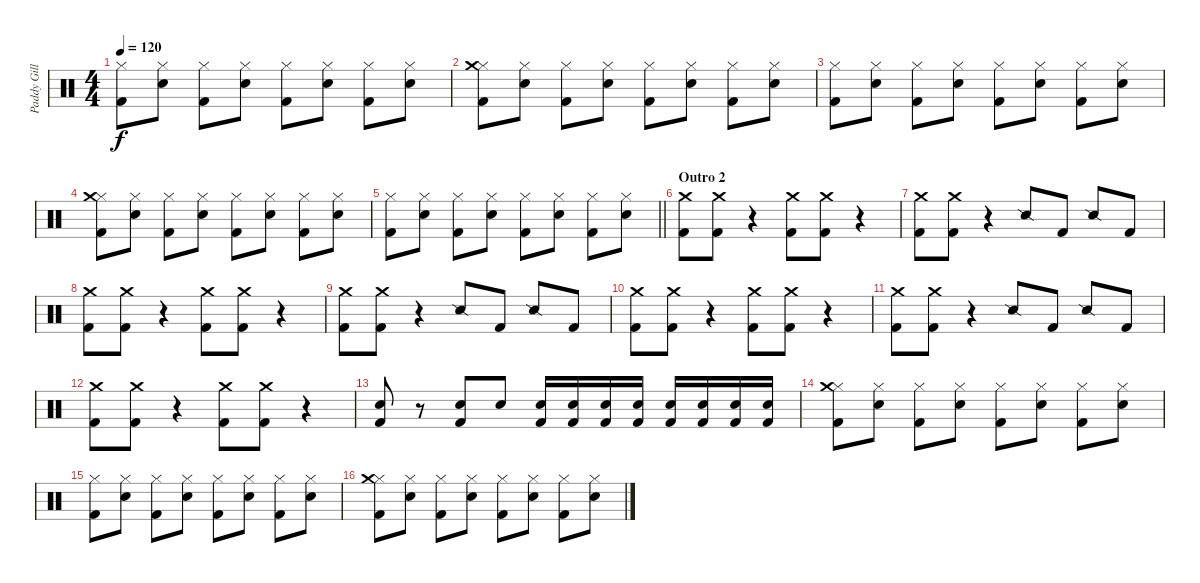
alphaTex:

\track ("Paddy Gillespie" "Paddy Gill") {instrument percussion}
\staff {score}
\articulation defaults
\ts (4 4)
\tempo 120
\clef neutral
\ks c
("Hi-Hat (closed)" "Kick (hit) 2").8{dy f} ("Hi-Hat (closed)" "Snare (hit) 2").8 ("Hi-Hat (closed)" "Kick (hit) 2").8 ("Hi-Hat (closed)" "Snare (hit) 2").8 ("Hi-Hat (closed)" "Kick (hit) 2").8 ("Hi-Hat (closed)" "Snare (hit) 2").8 ("Hi-Hat (closed)" "Kick (hit) 2").8 ("Hi-Hat (closed)" "Snare (hit) 2").8 |
("Hi-Hat (closed)" "Kick (hit) 2" "Crash medium (hit)").8 ("Hi-Hat (closed)" "Snare (hit) 2").8 ("Hi-Hat (closed)" "Kick (hit) 2").8 ("Hi-Hat (closed)" "Snare (hit) 2").8 ("Hi-Hat (closed)" "Kick (hit) 2").8 ("Hi-Hat (closed)" "Snare (hit) 2").8 ("Hi-Hat (closed)" "Kick (hit) 2").8 ("Hi-Hat (closed)" "Snare (hit) 2").8 |
("Hi-Hat (closed)" "Kick (hit) 2").8 ("Hi-Hat (closed)" "Snare (hit) 2").8 ("Hi-Hat (closed)" "Kick (hit) 2").8 ("Hi-Hat (closed)" "Snare (hit) 2").8 ("Hi-Hat (closed)" "Kick (hit) 2").8 ("Hi-Hat (closed)" "Snare (hit) 2").8 ("Hi-Hat (closed)" "Kick (hit) 2").8 ("Hi-Hat (closed)" "Snare (hit) 2").8 |
("Hi-Hat (closed)" "Kick (hit) 2" "Crash medium (hit)").8 ("Hi-Hat (closed)" "Snare (hit) 2").8 ("Hi-Hat (closed)" "Kick (hit) 2").8 ("Hi-Hat (closed)" "Snare (hit) 2").8 ("Hi-Hat (closed)" "Kick (hit) 2").8 ("Hi-Hat (closed)" "Snare (hit) 2").8 ("Hi-Hat (closed)" "Kick (hit) 2").8 ("Hi-Hat (closed)" "Snare (hit) 2").8 |
\barLineRight lightlight
("Hi-Hat (closed)" "Kick (hit) 2").8 ("Hi-Hat (closed)" "Snare (hit) 2").8 ("Hi-Hat (closed)" "Kick (hit) 2").8 ("Hi-Hat (closed)" "Snare (hit) 2").8 ("Hi-Hat (closed)" "Kick (hit) 2").8 ("Hi-Hat (closed)" "Snare (hit) 2").8 ("Hi-Hat (closed)" "Kick (hit) 2").8 ("Hi-Hat (closed)" "Snare (hit) 2").8 |
\section ("" "Outro 2")
("Kick (hit) 2" "Crash medium (hit)").8 ("Kick (hit) 2" "Crash medium (hit)").8 r.4 ("Kick (hit) 2" "Crash medium (hit)").8 ("Kick (hit) 2" "Crash medium (hit)").8 r.4 |
("Kick (hit) 2" "Crash medium (hit)").8 ("Kick (hit) 2" "Crash medium (hit)").8 r.4 "Snare (side stick) 2".8 "Kick (hit) 2".8 "Snare (side stick) 2".8 "Kick (hit) 2".8 |
("Kick (hit) 2" "Crash medium (hit)").8 ("Kick (hit) 2" "Crash medium (hit)").8 r.4 ("Kick (hit) 2" "Crash medium (hit)").8 ("Kick (hit) 2" "Crash medium (hit)").8 r.4 |
("Kick (hit) 2" "Crash medium (hit)").8 ("Kick (hit) 2" "Crash medium (hit)").8 r.4 "Snare (side stick) 2".8 "Kick (hit) 2".8 "Snare (side stick) 2".8 "Kick (hit) 2".8 |
("Kick (hit) 2" "Crash medium (hit)").8 ("Kick (hit) 2" "Crash medium (hit)").8 r.4 ("Kick (hit) 2" "Crash medium (hit)").8 ("Kick (hit) 2" "Crash medium (hit)").8 r.4 |
("Kick (hit) 2" "Crash medium (hit)").8 ("Kick (hit) 2" "Crash medium (hit)").8 r.4 "Snare (side stick) 2".8 "Kick (hit) 2".8 "Snare (side stick) 2".8 "Kick (hit) 2".8 |
("Kick (hit) 2" "Crash medium (hit)").8 ("Kick (hit) 2" "Crash medium (hit)").8 r.4 ("Kick (hit) 2" "Crash medium (hit)").8 ("Kick (hit) 2" "Crash medium (hit)").8 r.4 |
("Snare (hit) 2" "Kick (hit) 2").8 r.8 ("Snare (hit) 2" "Kick (hit) 2").8 "Snare (hit) 2".8 ("Snare (hit) 2" "Kick (hit) 2").16 ("Snare (hit) 2" "Kick (hit) 2").16 ("Snare (hit) 2" "Kick (hit) 2").16 ("Snare (hit) 2" "Kick (hit) 2").16 ("Snare (hit) 2" "Kick (hit) 2").16 ("Snare (hit) 2" "Kick (hit) 2").16 ("Snare (hit) 2" "Kick (hit) 2").16 ("Snare (hit) 2" "Kick (hit) 2").16 |
("Hi-Hat (closed)" "Kick (hit) 2" "Crash medium (hit)").8 ("Hi-Hat (closed)" "Snare (hit) 2").8 ("Hi-Hat (closed)" "Kick (hit) 2").8 ("Hi-Hat (closed)" "Snare (hit) 2").8 ("Hi-Hat (closed)" "Kick (hit) 2").8 ("Hi-Hat (closed)" "Snare (hit) 2").8 ("Hi-Hat (closed)" "Kick (hit) 2").8 ("Hi-Hat (closed)" "Snare (hit) 2").8 |
("Hi-Hat (closed)" "Kick (hit) 2").8 ("Hi-Hat (closed)" "Snare (hit) 2").8 ("Hi-Hat (closed)" "Kick (hit) 2").8 ("Hi-Hat (closed)" "Snare (hit) 2").8 ("Hi-Hat (closed)" "Kick (hit) 2").8 ("Hi-Hat (closed)" "Snare (hit) 2").8 ("Hi-Hat (closed)" "Kick (hit) 2").8 ("Hi-Hat (closed)" "Snare (hit) 2").8 |
("Hi-Hat (closed)" "Kick (hit) 2" "Crash medium (hit)").8 ("Hi-Hat (closed)" "Snare (hit) 2").8 ("Hi-Hat (closed)" "Kick (hit) 2").8 ("Hi-Hat (closed)" "Snare (hit) 2").8 ("Hi-Hat (closed)" "Kick (hit) 2").8 ("Hi-Hat (closed)" "Snare (hit) 2").8 ("Hi-Hat (closed)" "Kick (hit) 2").8 ("Hi-Hat (closed)" "Snare (hit) 2").8
